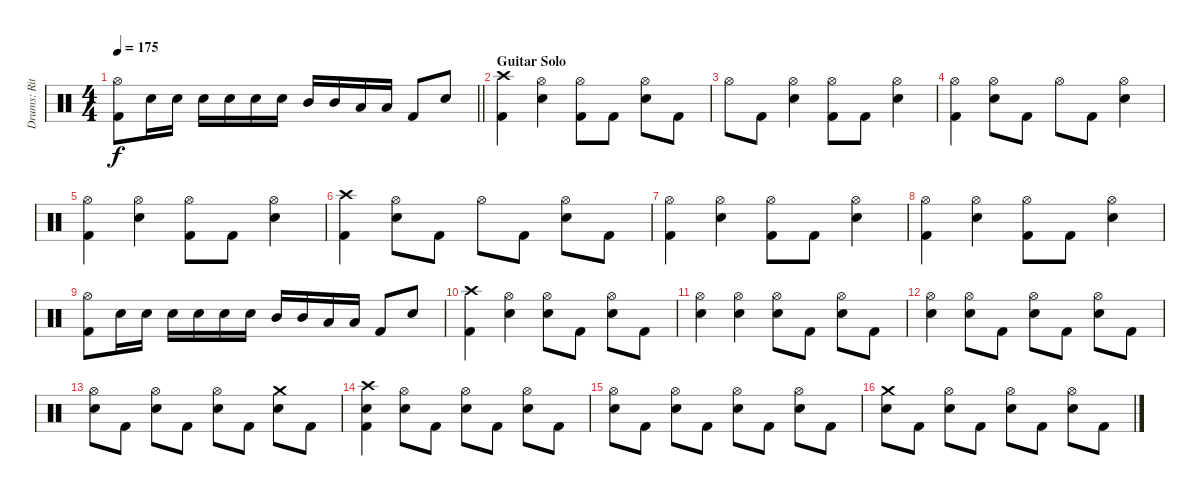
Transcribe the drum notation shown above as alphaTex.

\track ("Drums: Ritsu Tainaka" "Drums: Rit") {instrument percussion}
\staff {score}
\articulation defaults
\ts (4 4)
\tempo 175
\clef neutral
\barLineRight lightlight
\ks c
("Hi-Hat (open)" "Kick (hit) 2").8{dy f} "Snare (hit) 2".16 "Snare (hit) 2".16 "Snare (hit) 2".16 "Snare (hit) 2".16 "Snare (hit) 2".16 "Snare (hit) 2".16 "Mid Tom (hit)".16 "Mid Tom (hit)".16 "Low Tom (hit)".16 "Low Tom (hit)".16 "Kick (hit) 2".8 "Snare (hit) 2".8 |
\section ("" "Guitar Solo")
("Crash high (hit)" "Kick (hit) 2").4 ("Hi-Hat (open)" "Snare (hit) 2").4 ("Hi-Hat (open)" "Kick (hit) 2").8 "Kick (hit) 2".8 ("Hi-Hat (open)" "Snare (hit) 2").8 "Kick (hit) 2".8 |
"Hi-Hat (open)".8 "Kick (hit) 2".8 ("Hi-Hat (open)" "Snare (hit) 2").4 ("Hi-Hat (open)" "Kick (hit) 2").8 "Kick (hit) 2".8 ("Hi-Hat (open)" "Snare (hit) 2").4 |
("Hi-Hat (open)" "Kick (hit) 2").4 ("Hi-Hat (open)" "Snare (hit) 2").8 "Kick (hit) 2".8 "Hi-Hat (open)".8 "Kick (hit) 2".8 ("Hi-Hat (open)" "Snare (hit) 2").4 |
("Hi-Hat (open)" "Kick (hit) 2").4 ("Hi-Hat (open)" "Snare (hit) 2").4 ("Hi-Hat (open)" "Kick (hit) 2").8 "Kick (hit) 2".8 ("Hi-Hat (open)" "Snare (hit) 2").4 |
("Crash high (hit)" "Kick (hit) 2").4 ("Hi-Hat (open)" "Snare (hit) 2").8 "Kick (hit) 2".8 "Hi-Hat (open)".8 "Kick (hit) 2".8 ("Hi-Hat (open)" "Snare (hit) 2").8 "Kick (hit) 2".8 |
("Hi-Hat (open)" "Kick (hit) 2").4 ("Hi-Hat (open)" "Snare (hit) 2").4 ("Hi-Hat (open)" "Kick (hit) 2").8 "Kick (hit) 2".8 ("Hi-Hat (open)" "Snare (hit) 2").4 |
("Hi-Hat (open)" "Kick (hit) 2").4 ("Hi-Hat (open)" "Snare (hit) 2").4 ("Hi-Hat (open)" "Kick (hit) 2").8 "Kick (hit) 2".8 ("Hi-Hat (open)" "Snare (hit) 2").4 |
("Hi-Hat (open)" "Kick (hit) 2").8 "Snare (hit) 2".16 "Snare (hit) 2".16 "Snare (hit) 2".16 "Snare (hit) 2".16 "Snare (hit) 2".16 "Snare (hit) 2".16 "Mid Tom (hit)".16 "Mid Tom (hit)".16 "Low Tom (hit)".16 "Low Tom (hit)".16 "Kick (hit) 2".8 "Snare (hit) 2".8 |
("Crash high (hit)" "Kick (hit) 2").4 ("Hi-Hat (open)" "Snare (hit) 2").4 ("Hi-Hat (open)" "Snare (hit) 2").8 "Kick (hit) 2".8 ("Hi-Hat (open)" "Snare (hit) 2").8 "Kick (hit) 2".8 |
("Hi-Hat (open)" "Snare (hit) 2").4 ("Hi-Hat (open)" "Snare (hit) 2").4 ("Hi-Hat (open)" "Snare (hit) 2").8 "Kick (hit) 2".8 ("Hi-Hat (open)" "Snare (hit) 2").8 "Kick (hit) 2".8 |
("Hi-Hat (open)" "Snare (hit) 2").4 ("Hi-Hat (open)" "Snare (hit) 2").8 "Kick (hit) 2".8 ("Hi-Hat (open)" "Snare (hit) 2").8 "Kick (hit) 2".8 ("Hi-Hat (open)" "Snare (hit) 2").8 "Kick (hit) 2".8 |
("Hi-Hat (open)" "Snare (hit) 2").8 "Kick (hit) 2".8 ("Hi-Hat (open)" "Snare (hit) 2").8 "Kick (hit) 2".8 ("Hi-Hat (open)" "Snare (hit) 2").8 "Kick (hit) 2".8 ("Crash medium (hit)" "Snare (hit) 2").8 "Kick (hit) 2".8 |
("Crash high (hit)" "Snare (hit) 2" "Kick (hit) 2").4 ("Hi-Hat (open)" "Snare (hit) 2").8 "Kick (hit) 2".8 ("Hi-Hat (open)" "Snare (hit) 2").8 "Kick (hit) 2".8 ("Hi-Hat (open)" "Snare (hit) 2").8 "Kick (hit) 2".8 |
("Hi-Hat (open)" "Snare (hit) 2").8 "Kick (hit) 2".8 ("Hi-Hat (open)" "Snare (hit) 2").8 "Kick (hit) 2".8 ("Hi-Hat (open)" "Snare (hit) 2").8 "Kick (hit) 2".8 ("Hi-Hat (open)" "Snare (hit) 2").8 "Kick (hit) 2".8 |
("Crash medium (hit)" "Snare (hit) 2").8 "Kick (hit) 2".8 ("Hi-Hat (open)" "Snare (hit) 2").8 "Kick (hit) 2".8 ("Hi-Hat (open)" "Snare (hit) 2").8 "Kick (hit) 2".8 ("Hi-Hat (open)" "Snare (hit) 2").8 "Kick (hit) 2".8
